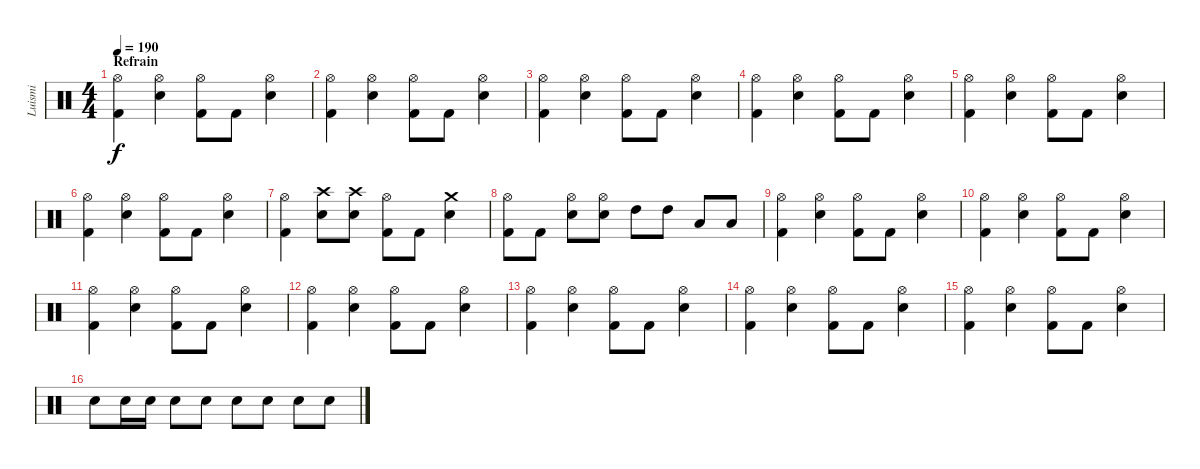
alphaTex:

\track ("Luismi" "Luismi") {instrument percussion}
\staff {score}
\articulation defaults
\ts (4 4)
\section ("" "Refrain")
\tempo 190
\clef neutral
\ks c
("Hi-Hat (open)" "Kick (hit) 2").4{dy f} ("Hi-Hat (open)" "Electric Snare (hit)").4 ("Hi-Hat (open)" "Kick (hit) 2").8 "Kick (hit) 2".8 ("Hi-Hat (open)" "Electric Snare (hit)").4 |
("Hi-Hat (open)" "Kick (hit) 2").4 ("Hi-Hat (open)" "Electric Snare (hit)").4 ("Hi-Hat (open)" "Kick (hit) 2").8 "Kick (hit) 2".8 ("Hi-Hat (open)" "Electric Snare (hit)").4 |
("Hi-Hat (open)" "Kick (hit) 2").4 ("Hi-Hat (open)" "Electric Snare (hit)").4 ("Hi-Hat (open)" "Kick (hit) 2").8 "Kick (hit) 2".8 ("Hi-Hat (open)" "Electric Snare (hit)").4 |
("Hi-Hat (open)" "Kick (hit) 2").4 ("Hi-Hat (open)" "Electric Snare (hit)").4 ("Hi-Hat (open)" "Kick (hit) 2").8 "Kick (hit) 2".8 ("Hi-Hat (open)" "Electric Snare (hit)").4 |
("Hi-Hat (open)" "Kick (hit) 2").4 ("Hi-Hat (open)" "Electric Snare (hit)").4 ("Hi-Hat (open)" "Kick (hit) 2").8 "Kick (hit) 2".8 ("Hi-Hat (open)" "Electric Snare (hit)").4 |
("Hi-Hat (open)" "Kick (hit) 2").4 ("Hi-Hat (open)" "Electric Snare (hit)").4 ("Hi-Hat (open)" "Kick (hit) 2").8 "Kick (hit) 2".8 ("Hi-Hat (open)" "Electric Snare (hit)").4 |
("Hi-Hat (open)" "Kick (hit) 2").4 ("Crash high (hit)" "Electric Snare (hit)").8 ("Crash high (hit)" "Electric Snare (hit)").8 ("Hi-Hat (open)" "Kick (hit) 2").8 "Kick (hit) 2".8 ("Crash medium (hit)" "Electric Snare (hit)").4 |
("Hi-Hat (open)" "Kick (hit) 2").8 "Kick (hit) 2".8 ("Hi-Hat (open)" "Electric Snare (hit)").8 ("Hi-Hat (open)" "Electric Snare (hit)").8 "High Tom (hit)".8 "High Tom (hit)".8 "Low Tom (hit)".8 "Low Tom (hit)".8 |
("Hi-Hat (open)" "Kick (hit) 2").4 ("Hi-Hat (open)" "Electric Snare (hit)").4 ("Hi-Hat (open)" "Kick (hit) 2").8 "Kick (hit) 2".8 ("Hi-Hat (open)" "Electric Snare (hit)").4 |
("Hi-Hat (open)" "Kick (hit) 2").4 ("Hi-Hat (open)" "Electric Snare (hit)").4 ("Hi-Hat (open)" "Kick (hit) 2").8 "Kick (hit) 2".8 ("Hi-Hat (open)" "Electric Snare (hit)").4 |
("Hi-Hat (open)" "Kick (hit) 2").4 ("Hi-Hat (open)" "Electric Snare (hit)").4 ("Hi-Hat (open)" "Kick (hit) 2").8 "Kick (hit) 2".8 ("Hi-Hat (open)" "Electric Snare (hit)").4 |
("Hi-Hat (open)" "Kick (hit) 2").4 ("Hi-Hat (open)" "Electric Snare (hit)").4 ("Hi-Hat (open)" "Kick (hit) 2").8 "Kick (hit) 2".8 ("Hi-Hat (open)" "Electric Snare (hit)").4 |
("Hi-Hat (open)" "Kick (hit) 2").4 ("Hi-Hat (open)" "Electric Snare (hit)").4 ("Hi-Hat (open)" "Kick (hit) 2").8 "Kick (hit) 2".8 ("Hi-Hat (open)" "Electric Snare (hit)").4 |
("Hi-Hat (open)" "Kick (hit) 2").4 ("Hi-Hat (open)" "Electric Snare (hit)").4 ("Hi-Hat (open)" "Kick (hit) 2").8 "Kick (hit) 2".8 ("Hi-Hat (open)" "Electric Snare (hit)").4 |
("Hi-Hat (open)" "Kick (hit) 2").4 ("Hi-Hat (open)" "Electric Snare (hit)").4 ("Hi-Hat (open)" "Kick (hit) 2").8 "Kick (hit) 2".8 ("Hi-Hat (open)" "Electric Snare (hit)").4 |
"Electric Snare (hit)".8 "Electric Snare (hit)".16 "Electric Snare (hit)".16 "Electric Snare (hit)".8 "Electric Snare (hit)".8 "Electric Snare (hit)".8 "Electric Snare (hit)".8 "Electric Snare (hit)".8 "Electric Snare (hit)".8
